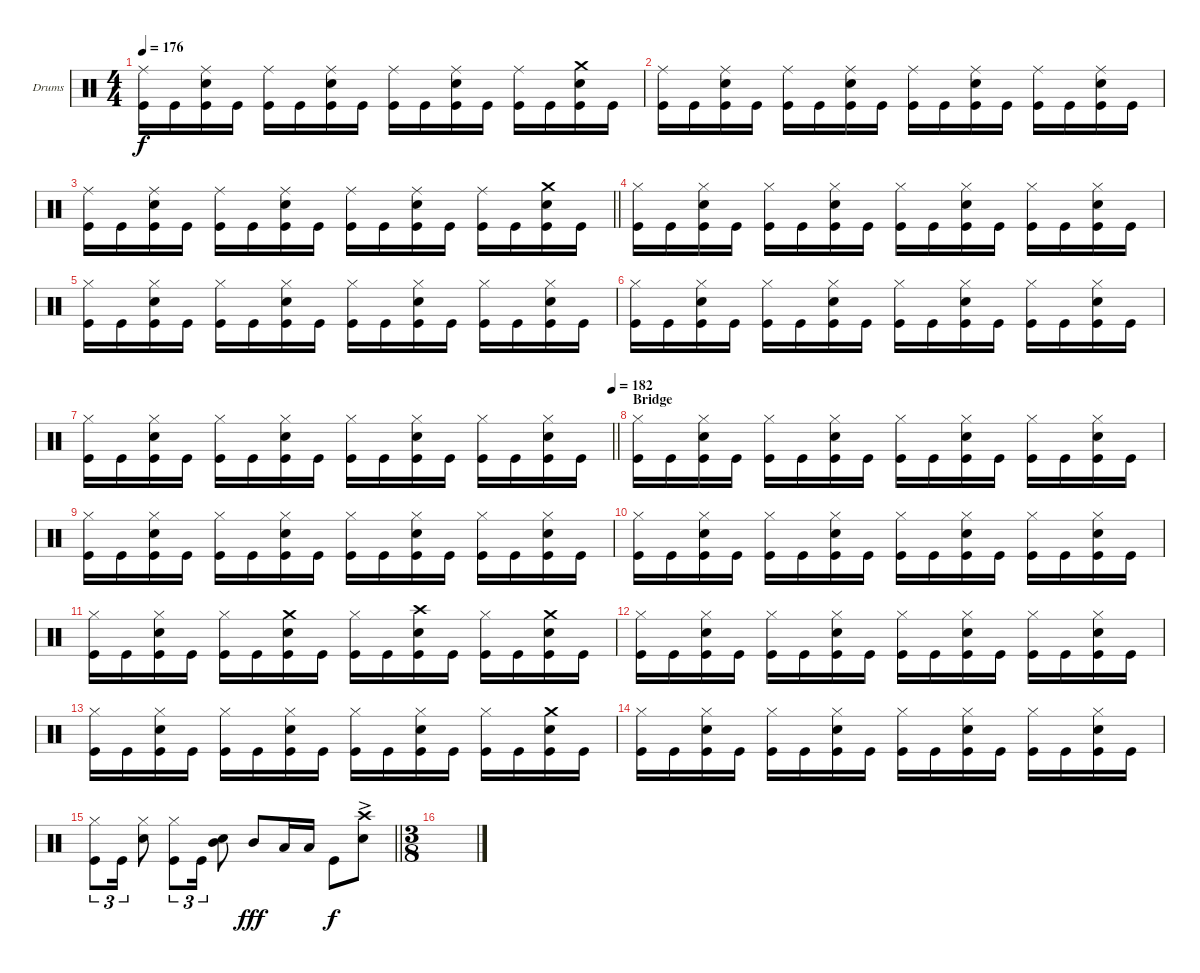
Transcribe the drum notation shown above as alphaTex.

\bracketExtendMode groupsimilarinstruments
\firstSystemTrackNameOrientation horizontal
\otherSystemsTrackNameOrientation horizontal
\track ("Drums" "Drums") {instrument percussion}
\staff {score}
\articulation defaults
\ts (4 4)
\tempo 176
\clef neutral
\ks c
("Kick (hit)" "Ride (middle)").16{dy f} "Kick (hit)".16 ("Snare (hit) 2" "Ride (middle)" "Kick (hit)").16 "Kick (hit)".16 ("Kick (hit)" "Ride (middle)").16 "Kick (hit)".16 ("Snare (hit) 2" "Ride (middle)" "Kick (hit)").16 "Kick (hit)".16 ("Kick (hit)" "Ride (middle)").16 "Kick (hit)".16 ("Snare (hit) 2" "Ride (middle)" "Kick (hit)").16 "Kick (hit)".16 ("Kick (hit)" "Ride (middle)").16 "Kick (hit)".16 ("Snare (hit) 2" "Crash medium (hit)" "Kick (hit)").16 "Kick (hit)".16 |
("Kick (hit)" "Ride (middle)").16 "Kick (hit)".16 ("Snare (hit) 2" "Ride (middle)" "Kick (hit)").16 "Kick (hit)".16 ("Kick (hit)" "Ride (middle)").16 "Kick (hit)".16 ("Snare (hit) 2" "Ride (middle)" "Kick (hit)").16 "Kick (hit)".16 ("Kick (hit)" "Ride (middle)").16 "Kick (hit)".16 ("Snare (hit) 2" "Ride (middle)" "Kick (hit)").16 "Kick (hit)".16 ("Kick (hit)" "Ride (middle)").16 "Kick (hit)".16 ("Snare (hit) 2" "Kick (hit)" "Ride (middle)").16 "Kick (hit)".16 |
\barLineRight lightlight
("Kick (hit)" "Ride (middle)").16 "Kick (hit)".16 ("Snare (hit) 2" "Ride (middle)" "Kick (hit)").16 "Kick (hit)".16 ("Kick (hit)" "Ride (middle)").16 "Kick (hit)".16 ("Snare (hit) 2" "Ride (middle)" "Kick (hit)").16 "Kick (hit)".16 ("Kick (hit)" "Ride (middle)").16 "Kick (hit)".16 ("Snare (hit) 2" "Ride (middle)" "Kick (hit)").16 "Kick (hit)".16 ("Kick (hit)" "Ride (middle)").16 "Kick (hit)".16 ("Snare (hit) 2" "Crash medium (hit)" "Kick (hit)").16 "Kick (hit)".16 |
("Kick (hit)" "Hi-Hat (closed)").16 "Kick (hit)".16 ("Snare (hit) 2" "Hi-Hat (closed)" "Kick (hit)").16 "Kick (hit)".16 ("Kick (hit)" "Hi-Hat (closed)").16 "Kick (hit)".16 ("Snare (hit) 2" "Hi-Hat (closed)" "Kick (hit)").16 "Kick (hit)".16 ("Kick (hit)" "Hi-Hat (closed)").16 "Kick (hit)".16 ("Snare (hit) 2" "Hi-Hat (closed)" "Kick (hit)").16 "Kick (hit)".16 ("Kick (hit)" "Hi-Hat (closed)").16 "Kick (hit)".16 ("Snare (hit) 2" "Hi-Hat (closed)" "Kick (hit)").16 "Kick (hit)".16 |
("Kick (hit)" "Hi-Hat (closed)").16 "Kick (hit)".16 ("Snare (hit) 2" "Hi-Hat (closed)" "Kick (hit)").16 "Kick (hit)".16 ("Kick (hit)" "Hi-Hat (closed)").16 "Kick (hit)".16 ("Snare (hit) 2" "Hi-Hat (closed)" "Kick (hit)").16 "Kick (hit)".16 ("Kick (hit)" "Hi-Hat (closed)").16 "Kick (hit)".16 ("Snare (hit) 2" "Hi-Hat (closed)" "Kick (hit)").16 "Kick (hit)".16 ("Kick (hit)" "Hi-Hat (closed)").16 "Kick (hit)".16 ("Snare (hit) 2" "Hi-Hat (closed)" "Kick (hit)").16 "Kick (hit)".16 |
("Kick (hit)" "Hi-Hat (closed)").16 "Kick (hit)".16 ("Snare (hit) 2" "Hi-Hat (closed)" "Kick (hit)").16 "Kick (hit)".16 ("Kick (hit)" "Hi-Hat (closed)").16 "Kick (hit)".16 ("Snare (hit) 2" "Hi-Hat (closed)" "Kick (hit)").16 "Kick (hit)".16 ("Kick (hit)" "Hi-Hat (closed)").16 "Kick (hit)".16 ("Snare (hit) 2" "Hi-Hat (closed)" "Kick (hit)").16 "Kick (hit)".16 ("Kick (hit)" "Hi-Hat (closed)").16 "Kick (hit)".16 ("Snare (hit) 2" "Hi-Hat (closed)" "Kick (hit)").16 "Kick (hit)".16 |
\tempo (182 1)
\barLineRight lightlight
("Kick (hit)" "Hi-Hat (closed)").16 "Kick (hit)".16 ("Snare (hit) 2" "Hi-Hat (closed)" "Kick (hit)").16 "Kick (hit)".16 ("Kick (hit)" "Hi-Hat (closed)").16 "Kick (hit)".16 ("Snare (hit) 2" "Hi-Hat (closed)" "Kick (hit)").16 "Kick (hit)".16 ("Kick (hit)" "Hi-Hat (closed)").16 "Kick (hit)".16 ("Snare (hit) 2" "Hi-Hat (closed)" "Kick (hit)").16 "Kick (hit)".16 ("Kick (hit)" "Hi-Hat (closed)").16 "Kick (hit)".16 ("Snare (hit) 2" "Hi-Hat (closed)" "Kick (hit)").16 "Kick (hit)".16 |
\section ("" "Bridge")
("Kick (hit)" "Hi-Hat (closed)").16 "Kick (hit)".16 ("Snare (hit) 2" "Hi-Hat (closed)" "Kick (hit)").16 "Kick (hit)".16 ("Kick (hit)" "Hi-Hat (closed)").16 "Kick (hit)".16 ("Snare (hit) 2" "Hi-Hat (closed)" "Kick (hit)").16 "Kick (hit)".16 ("Kick (hit)" "Hi-Hat (closed)").16 "Kick (hit)".16 ("Snare (hit) 2" "Hi-Hat (closed)" "Kick (hit)").16 "Kick (hit)".16 ("Kick (hit)" "Hi-Hat (closed)").16 "Kick (hit)".16 ("Snare (hit) 2" "Hi-Hat (closed)" "Kick (hit)").16 "Kick (hit)".16 |
("Kick (hit)" "Hi-Hat (closed)").16 "Kick (hit)".16 ("Snare (hit) 2" "Hi-Hat (closed)" "Kick (hit)").16 "Kick (hit)".16 ("Kick (hit)" "Hi-Hat (closed)").16 "Kick (hit)".16 ("Snare (hit) 2" "Hi-Hat (closed)" "Kick (hit)").16 "Kick (hit)".16 ("Kick (hit)" "Hi-Hat (closed)").16 "Kick (hit)".16 ("Snare (hit) 2" "Hi-Hat (closed)" "Kick (hit)").16 "Kick (hit)".16 ("Kick (hit)" "Hi-Hat (closed)").16 "Kick (hit)".16 ("Snare (hit) 2" "Hi-Hat (closed)" "Kick (hit)").16 "Kick (hit)".16 |
("Kick (hit)" "Hi-Hat (closed)").16 "Kick (hit)".16 ("Snare (hit) 2" "Hi-Hat (closed)" "Kick (hit)").16 "Kick (hit)".16 ("Kick (hit)" "Hi-Hat (closed)").16 "Kick (hit)".16 ("Snare (hit) 2" "Hi-Hat (closed)" "Kick (hit)").16 "Kick (hit)".16 ("Kick (hit)" "Hi-Hat (closed)").16 "Kick (hit)".16 ("Snare (hit) 2" "Hi-Hat (closed)" "Kick (hit)").16 "Kick (hit)".16 ("Kick (hit)" "Hi-Hat (closed)").16 "Kick (hit)".16 ("Snare (hit) 2" "Hi-Hat (closed)" "Kick (hit)").16 "Kick (hit)".16 |
("Kick (hit)" "Hi-Hat (closed)").16 "Kick (hit)".16 ("Snare (hit) 2" "Hi-Hat (closed)" "Kick (hit)").16 "Kick (hit)".16 ("Kick (hit)" "Hi-Hat (closed)").16 "Kick (hit)".16 ("Snare (hit) 2" "Crash medium (hit)" "Kick (hit)").16 "Kick (hit)".16 ("Kick (hit)" "Hi-Hat (closed)").16 "Kick (hit)".16 ("Snare (hit) 2" "Crash high (hit)" "Kick (hit)").16 "Kick (hit)".16 ("Kick (hit)" "Hi-Hat (closed)").16 "Kick (hit)".16 ("Snare (hit) 2" "Crash medium (hit)" "Kick (hit)").16 "Kick (hit)".16 |
("Kick (hit)" "Hi-Hat (closed)").16 "Kick (hit)".16 ("Snare (hit) 2" "Hi-Hat (closed)" "Kick (hit)").16 "Kick (hit)".16 ("Kick (hit)" "Hi-Hat (closed)").16 "Kick (hit)".16 ("Snare (hit) 2" "Hi-Hat (closed)" "Kick (hit)").16 "Kick (hit)".16 ("Kick (hit)" "Hi-Hat (closed)").16 "Kick (hit)".16 ("Snare (hit) 2" "Hi-Hat (closed)" "Kick (hit)").16 "Kick (hit)".16 ("Kick (hit)" "Hi-Hat (closed)").16 "Kick (hit)".16 ("Snare (hit) 2" "Hi-Hat (closed)" "Kick (hit)").16 "Kick (hit)".16 |
("Kick (hit)" "Hi-Hat (closed)").16 "Kick (hit)".16 ("Snare (hit) 2" "Hi-Hat (closed)" "Kick (hit)").16 "Kick (hit)".16 ("Kick (hit)" "Hi-Hat (closed)").16 "Kick (hit)".16 ("Snare (hit) 2" "Hi-Hat (closed)" "Kick (hit)").16 "Kick (hit)".16 ("Kick (hit)" "Hi-Hat (closed)").16 "Kick (hit)".16 ("Snare (hit) 2" "Hi-Hat (closed)" "Kick (hit)").16 "Kick (hit)".16 ("Kick (hit)" "Hi-Hat (closed)").16 "Kick (hit)".16 ("Snare (hit) 2" "Kick (hit)" "Crash medium (hit)").16 "Kick (hit)".16 |
("Kick (hit)" "Hi-Hat (closed)").16 "Kick (hit)".16 ("Snare (hit) 2" "Hi-Hat (closed)" "Kick (hit)").16 "Kick (hit)".16 ("Kick (hit)" "Hi-Hat (closed)").16 "Kick (hit)".16 ("Snare (hit) 2" "Hi-Hat (closed)" "Kick (hit)").16 "Kick (hit)".16 ("Kick (hit)" "Hi-Hat (closed)").16 "Kick (hit)".16 ("Snare (hit) 2" "Hi-Hat (closed)" "Kick (hit)").16 "Kick (hit)".16 ("Kick (hit)" "Hi-Hat (closed)").16 "Kick (hit)".16 ("Snare (hit) 2" "Hi-Hat (closed)" "Kick (hit)").16 "Kick (hit)".16 |
\barLineRight lightlight
("Kick (hit)" "Hi-Hat (closed)").8{tu (3 2)} "Kick (hit)".16{tu (3 2)} ("Snare (hit) 2" "Hi-Hat (closed)").8 ("Kick (hit)" "Hi-Hat (closed)").8{tu (3 2)} "Kick (hit)".16{tu (3 2)} ("Mid Tom (hit)" "Snare (hit) 2").8 "Mid Tom (hit)".8{dy fff} "Low Tom (hit)".16 "Low Tom (hit)".16 "Kick (hit)".8{dy f} ("Snare (hit) 2"{ac} "Crash high (hit)"{ac}).8 |
\ts (3 8)
